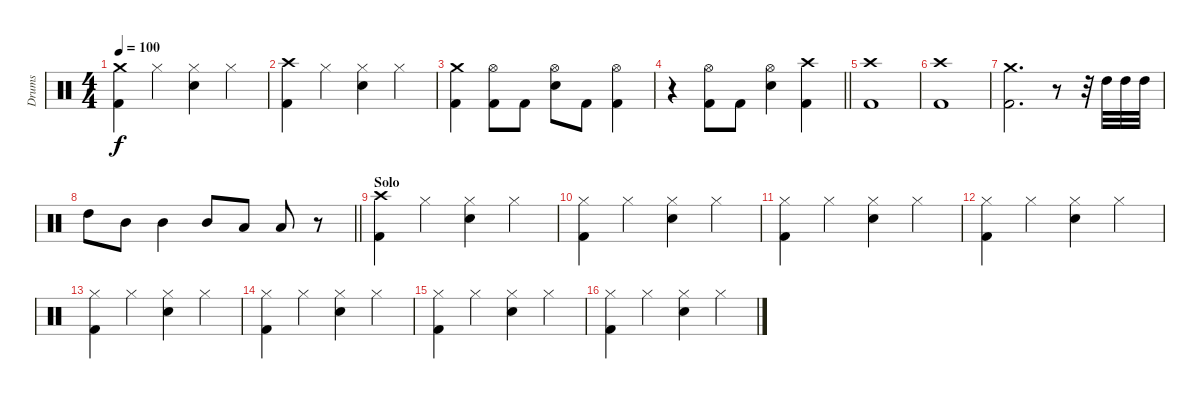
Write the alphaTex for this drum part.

\track ("Drums" "Drums") {instrument percussion}
\staff {score}
\articulation defaults
\ts (4 4)
\tempo 100
\clef neutral
\ks c
("Crash medium (hit)" "Kick (hit) 2").4{dy f} "Hi-Hat (closed)".4 ("Snare (hit) 2" "Hi-Hat (closed)").4 "Hi-Hat (closed)".4 |
("Crash high (hit)" "Kick (hit) 2").4 "Hi-Hat (closed)".4 ("Snare (hit) 2" "Hi-Hat (closed)").4 "Hi-Hat (closed)".4 |
("Crash medium (hit)" "Kick (hit) 2").4 ("Hi-Hat (open)" "Kick (hit) 2").8 "Kick (hit) 2".8 ("Snare (hit) 2" "Hi-Hat (open)").8 "Kick (hit) 2".8 ("Hi-Hat (open)" "Kick (hit) 2").4 |
\barLineRight lightlight
r.4 ("Hi-Hat (open)" "Kick (hit) 2").8 "Kick (hit) 2".8 ("Snare (hit) 2" "Hi-Hat (open)").4 ("Crash high (hit)" "Kick (hit) 2").4 |
("Crash high (hit)" "Kick (hit) 2").1 |
("Crash high (hit)" "Kick (hit) 2").1 |
("Crash medium (hit)" "Kick (hit) 2").2{d} r.8 r.32 "High Tom (hit)".32 "High Tom (hit)".32 "High Tom (hit)".32 |
\barLineRight lightlight "High Tom (hit)".8 "Mid Tom (hit)".8 "Mid Tom (hit)".4 "Mid Tom (hit)".8 "Low Tom (hit)".8 "Low Tom (hit)".8
r.8 |
\section ("" "Solo")
("Crash high (hit)" "Kick (hit) 2").4 "Hi-Hat (closed)".4 ("Hi-Hat (closed)" "Snare (hit) 2").4 "Hi-Hat (closed)".4 |
("Hi-Hat (closed)" "Kick (hit) 2").4 "Hi-Hat (closed)".4 ("Hi-Hat (closed)" "Snare (hit) 2").4 "Hi-Hat (closed)".4 |
("Hi-Hat (closed)" "Kick (hit) 2").4 "Hi-Hat (closed)".4 ("Hi-Hat (closed)" "Snare (hit) 2").4 "Hi-Hat (closed)".4 |
("Hi-Hat (closed)" "Kick (hit) 2").4 "Hi-Hat (closed)".4 ("Hi-Hat (closed)" "Snare (hit) 2").4 "Hi-Hat (closed)".4 |
("Hi-Hat (closed)" "Kick (hit) 2").4 "Hi-Hat (closed)".4 ("Hi-Hat (closed)" "Snare (hit) 2").4 "Hi-Hat (closed)".4 |
("Hi-Hat (closed)" "Kick (hit) 2").4 "Hi-Hat (closed)".4 ("Hi-Hat (closed)" "Snare (hit) 2").4 "Hi-Hat (closed)".4 |
("Hi-Hat (closed)" "Kick (hit) 2").4 "Hi-Hat (closed)".4 ("Hi-Hat (closed)" "Snare (hit) 2").4 "Hi-Hat (closed)".4 |
("Hi-Hat (closed)" "Kick (hit) 2").4 "Hi-Hat (closed)".4 ("Hi-Hat (closed)" "Snare (hit) 2").4 "Hi-Hat (closed)".4
